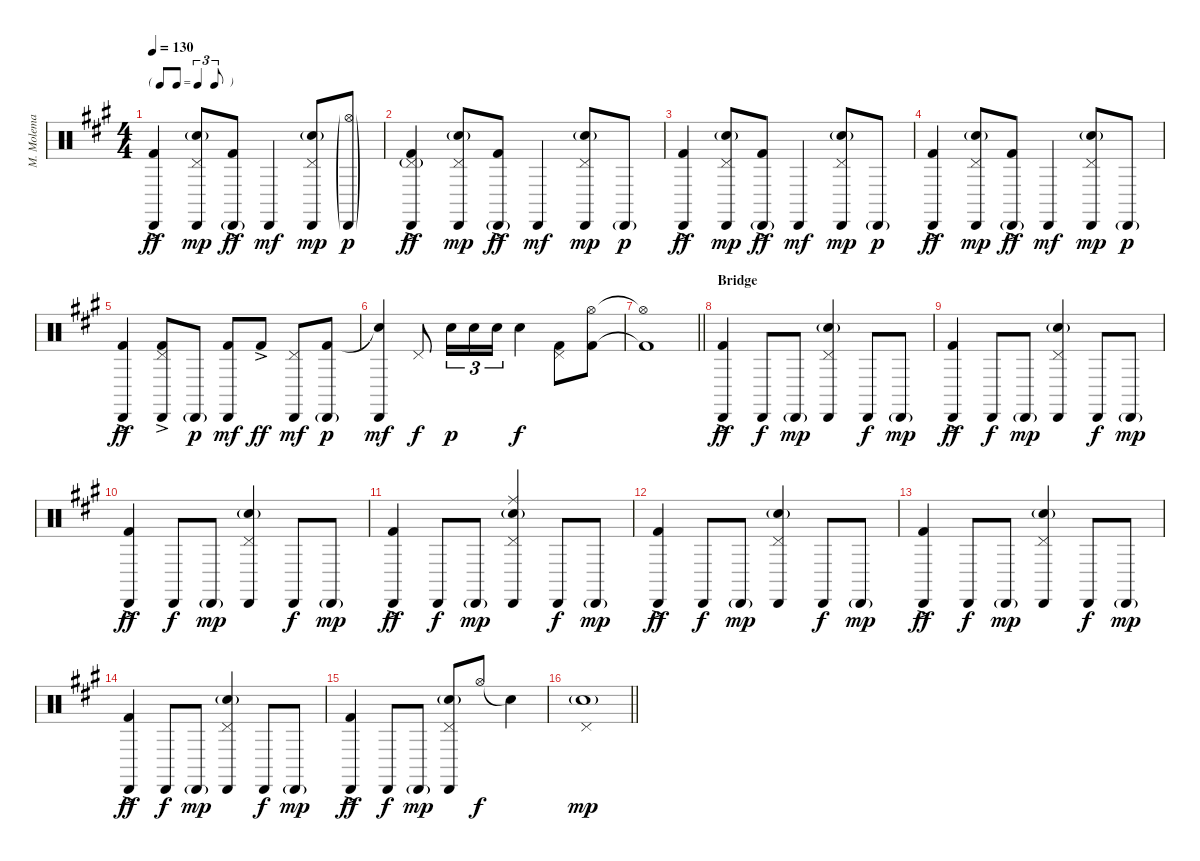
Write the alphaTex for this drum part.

\track ("M. Molema" "M. Molema") {instrument percussion}
\staff {score}
\articulation defaults
\ts (4 4)
\tf triplet8th
\tempo 130
\clef neutral
\ks a
("Cabasa (hit)" "Kick (hit) 2"{ac}).4{dy ff} ("Pedal Hi-Hat (hit)" "Cabasa (hit)" "Snare (hit) 2"{g}).8{dy mp} ("Cabasa (hit)"{g} "Kick (hit) 2"{ac}).8{dy ff} "Cabasa (hit)".4{dy mf} ("Pedal Hi-Hat (hit)" "Cabasa (hit)" "Snare (hit) 2"{g}).8{dy mp} ("Hi-Hat (open)"{g} "Cabasa (hit)"{g}).8{dy p} |
("Pedal Hi-Hat (hit)"{g} "Cabasa (hit)" "Kick (hit) 2"{ac}).4{dy ff} ("Pedal Hi-Hat (hit)" "Cabasa (hit)" "Snare (hit) 2"{g}).8{dy mp} ("Cabasa (hit)"{g} "Kick (hit) 2"{ac}).8{dy ff} "Cabasa (hit)".4{dy mf} ("Pedal Hi-Hat (hit)" "Cabasa (hit)" "Snare (hit) 2"{g}).8{dy mp} "Cabasa (hit)"{g}.8{dy p} |
("Cabasa (hit)" "Kick (hit) 2"{ac}).4{dy ff} ("Pedal Hi-Hat (hit)" "Cabasa (hit)" "Snare (hit) 2"{g}).8{dy mp} ("Cabasa (hit)"{g} "Kick (hit) 2"{ac}).8{dy ff} "Cabasa (hit)".4{dy mf} ("Pedal Hi-Hat (hit)" "Cabasa (hit)" "Snare (hit) 2"{g}).8{dy mp} "Cabasa (hit)"{g}.8{dy p} |
("Cabasa (hit)" "Kick (hit) 2"{ac}).4{dy ff} ("Pedal Hi-Hat (hit)" "Cabasa (hit)" "Snare (hit) 2"{g}).8{dy mp} ("Cabasa (hit)"{g} "Kick (hit) 2"{ac}).8{dy ff} "Cabasa (hit)".4{dy mf} ("Pedal Hi-Hat (hit)" "Cabasa (hit)" "Snare (hit) 2"{g}).8{dy mp} "Cabasa (hit)"{g}.8{dy p} |
("Cabasa (hit)" "Kick (hit) 2"{ac}).4{dy ff} ("Pedal Hi-Hat (hit)" "Cabasa (hit)" "Kick (hit) 2"{ac}).8 "Cabasa (hit)"{g}.8{dy p} ("Cabasa (hit)" "Kick (hit) 2").8{dy mf} "Kick (hit) 2"{ac}.8{dy ff} ("Pedal Hi-Hat (hit)" "Cabasa (hit)").8{dy mf} ("Cabasa (hit)"{g} "Kick (hit) 2").8{dy p} |
("Cabasa (hit)" "Snare (hit)"{t}).4{dy mf} "Pedal Hi-Hat (hit)".8{dy f} "Snare (hit) 2".16{tu (3 2) dy p} "Snare (hit) 2".16{tu (3 2)} "Snare (hit) 2".16{tu (3 2)} "Snare (hit) 2".4{dy f} ("Pedal Hi-Hat (hit)" "Kick (hit) 2").8 ("Hi-Hat (open)" "Kick (hit) 2").8 |
\barLineRight lightlight
("Hi-Hat (open)"{t} "Kick (hit) 2"{t}).1 |
\section ("" "Bridge")
("Cabasa (hit)" "Kick (hit) 2"{ac}).4{dy ff} "Cabasa (hit)".8{dy f} "Cabasa (hit)"{g}.8{dy mp} ("Pedal Hi-Hat (hit)" "Cabasa (hit)" "Snare (hit) 2"{g}).4 "Cabasa (hit)".8{dy f} "Cabasa (hit)"{g}.8{dy mp} |
("Cabasa (hit)" "Kick (hit) 2"{ac}).4{dy ff} "Cabasa (hit)".8{dy f} "Cabasa (hit)"{g}.8{dy mp} ("Pedal Hi-Hat (hit)" "Cabasa (hit)" "Snare (hit) 2"{g}).4 "Cabasa (hit)".8{dy f} "Cabasa (hit)"{g}.8{dy mp} |
("Cabasa (hit)" "Kick (hit) 2"{ac}).4{dy ff} "Cabasa (hit)".8{dy f} "Cabasa (hit)"{g}.8{dy mp} ("Pedal Hi-Hat (hit)" "Cabasa (hit)" "Snare (hit) 2"{g}).4 "Cabasa (hit)".8{dy f} "Cabasa (hit)"{g}.8{dy mp} |
("Cabasa (hit)" "Kick (hit) 2"{ac}).4{dy ff} "Cabasa (hit)".8{dy f} "Cabasa (hit)"{g}.8{dy mp} ("Pedal Hi-Hat (hit)" "Ride (middle)" "Cabasa (hit)" "Snare (hit) 2"{g}).4 "Cabasa (hit)".8{dy f} "Cabasa (hit)"{g}.8{dy mp} |
("Cabasa (hit)" "Kick (hit) 2"{ac}).4{dy ff} "Cabasa (hit)".8{dy f} "Cabasa (hit)"{g}.8{dy mp} ("Pedal Hi-Hat (hit)" "Cabasa (hit)" "Snare (hit) 2"{g}).4 "Cabasa (hit)".8{dy f} "Cabasa (hit)"{g}.8{dy mp} |
("Cabasa (hit)" "Kick (hit) 2"{ac}).4{dy ff} "Cabasa (hit)".8{dy f} "Cabasa (hit)"{g}.8{dy mp} ("Pedal Hi-Hat (hit)" "Cabasa (hit)" "Snare (hit) 2"{g}).4 "Cabasa (hit)".8{dy f} "Cabasa (hit)"{g}.8{dy mp} |
("Cabasa (hit)" "Kick (hit) 2"{ac}).4{dy ff} "Cabasa (hit)".8{dy f} "Cabasa (hit)"{g}.8{dy mp} ("Pedal Hi-Hat (hit)" "Cabasa (hit)" "Snare (hit) 2"{g}).4 "Cabasa (hit)".8{dy f} "Cabasa (hit)"{g}.8{dy mp} |
("Cabasa (hit)" "Kick (hit) 2"{ac}).4{dy ff} "Cabasa (hit)".8{dy f} "Cabasa (hit)"{g}.8{dy mp} ("Pedal Hi-Hat (hit)" "Cabasa (hit)" "Snare (hit) 2"{g}).8 "Hi-Hat (open)".8{dy f} "Snare (hit)"{t}.4 |
\barLineRight lightlight
("Pedal Hi-Hat (hit)" "Snare (hit) 2"{g}).1{dy mp}
